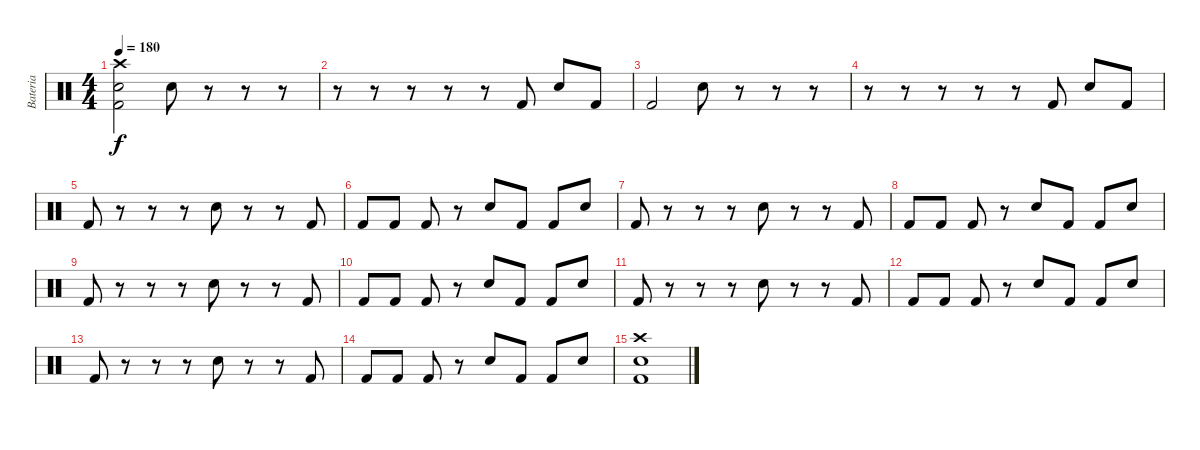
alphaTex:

\track ("Bateria" "Bateria") {instrument percussion}
\staff {score}
\articulation defaults
\ts (4 4)
\tempo 180
\clef neutral
\ks c
("Kick (hit) 2" "Electric Snare (hit)" "Crash high (hit)").2{dy f} "Electric Snare (hit)".8 r.8 r.8 r.8 |
r.8 r.8 r.8 r.8 r.8 "Kick (hit) 2".8 "Electric Snare (hit)".8 "Kick (hit) 2".8 |
"Kick (hit) 2".2 "Electric Snare (hit)".8 r.8 r.8 r.8 |
r.8 r.8 r.8 r.8 r.8 "Kick (hit) 2".8 "Electric Snare (hit)".8 "Kick (hit) 2".8 |
"Kick (hit) 2".8 r.8 r.8 r.8 "Electric Snare (hit)".8 r.8 r.8 "Kick (hit) 2".8 |
"Kick (hit) 2".8 "Kick (hit) 2".8 "Kick (hit) 2".8 r.8 "Electric Snare (hit)".8 "Kick (hit) 2".8 "Kick (hit) 2".8 "Electric Snare (hit)".8 |
"Kick (hit) 2".8 r.8 r.8 r.8 "Electric Snare (hit)".8 r.8 r.8 "Kick (hit) 2".8 |
"Kick (hit) 2".8 "Kick (hit) 2".8 "Kick (hit) 2".8 r.8 "Electric Snare (hit)".8 "Kick (hit) 2".8 "Kick (hit) 2".8 "Electric Snare (hit)".8 |
"Kick (hit) 2".8 r.8 r.8 r.8 "Electric Snare (hit)".8 r.8 r.8 "Kick (hit) 2".8 |
"Kick (hit) 2".8 "Kick (hit) 2".8 "Kick (hit) 2".8 r.8 "Electric Snare (hit)".8 "Kick (hit) 2".8 "Kick (hit) 2".8 "Electric Snare (hit)".8 |
"Kick (hit) 2".8 r.8 r.8 r.8 "Electric Snare (hit)".8 r.8 r.8 "Kick (hit) 2".8 |
"Kick (hit) 2".8 "Kick (hit) 2".8 "Kick (hit) 2".8 r.8 "Electric Snare (hit)".8 "Kick (hit) 2".8 "Kick (hit) 2".8 "Electric Snare (hit)".8 |
"Kick (hit) 2".8 r.8 r.8 r.8 "Electric Snare (hit)".8 r.8 r.8 "Kick (hit) 2".8 |
"Kick (hit) 2".8 "Kick (hit) 2".8 "Kick (hit) 2".8 r.8 "Electric Snare (hit)".8 "Kick (hit) 2".8 "Kick (hit) 2".8 "Electric Snare (hit)".8 |
("Kick (hit) 2" "Electric Snare (hit)" "Crash high (hit)").1
